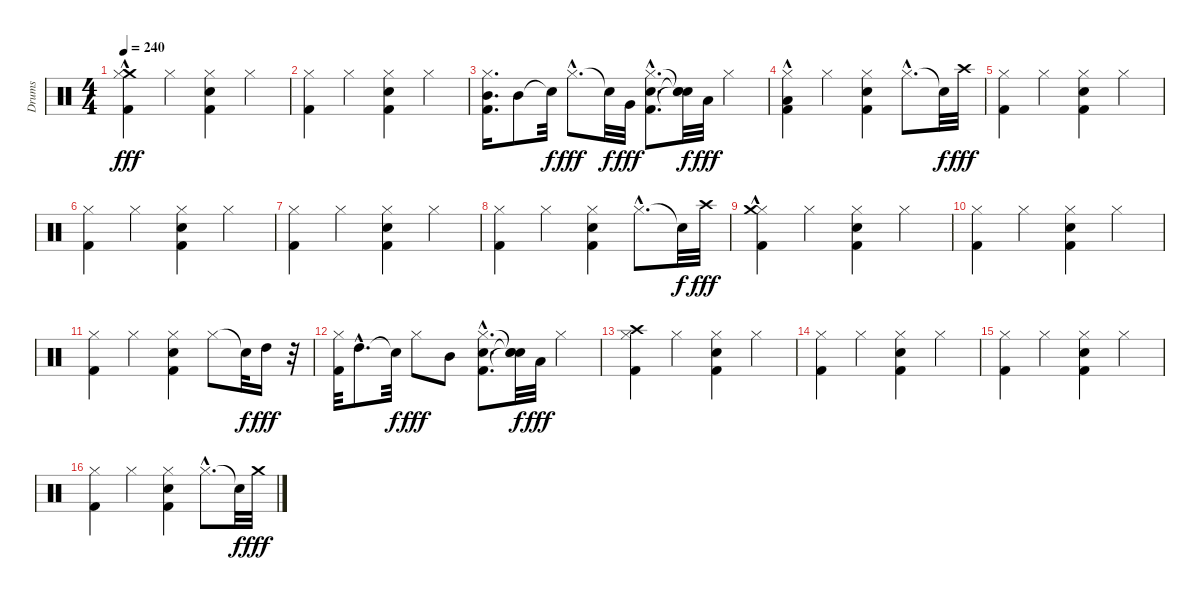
\track ("Drums" "Drums") {instrument percussion}
\staff {score}
\articulation defaults
\ts (4 4)
\tempo 240
\clef neutral
\ks c
("Crash medium (hit)"{hac} "Hi-Hat (closed)" "Kick (hit) 2").4{dy fff} "Hi-Hat (closed)".4 ("Kick (hit) 2" "Snare (hit) 2" "Hi-Hat (closed)").4 "Hi-Hat (closed)".4 |
("Hi-Hat (closed)" "Kick (hit) 2").4 "Hi-Hat (closed)".4 ("Snare (hit) 2" "Kick (hit) 2" "Hi-Hat (closed)").4 "Hi-Hat (closed)".4 |
("Mid Tom (hit)" "Hi-Hat (closed)" "Kick (hit) 2").16{d} "Mid Tom (hit)".8 "Snare (hit)"{t}.32{dy f} "Hi-Hat (closed)"{hac}.8{d dy fff} "Snare (hit)"{t}.32{dy f} "Very Low Tom (hit)".32{dy fff} ("Snare (hit) 2"{hac} "Hi-Hat (closed)"{hac} "Kick (hit) 2"{hac}).8{d} ("Snare (hit)"{t} "Snare (hit)"{t} "Snare (hit)"{t}).32{dy f} "Low Tom (hit)".32{dy fff} "Hi-Hat (closed)".4 |
("Low Floor Tom (hit)"{hac} "Hi-Hat (closed)" "Kick (hit) 2").4 "Hi-Hat (closed)".4 ("Snare (hit) 2" "Kick (hit) 2" "Hi-Hat (closed)").4 "Hi-Hat (closed)"{hac}.8{d} "Snare (hit)"{t}.32{dy f} "Crash high (hit)".32{dy fff} |
("Hi-Hat (closed)" "Kick (hit) 2").4 "Hi-Hat (closed)".4 ("Kick (hit) 2" "Snare (hit) 2" "Hi-Hat (closed)").4 "Hi-Hat (closed)".4 |
("Hi-Hat (closed)" "Kick (hit) 2").4 "Hi-Hat (closed)".4 ("Hi-Hat (closed)" "Snare (hit) 2" "Kick (hit) 2").4 "Hi-Hat (closed)".4 |
("Hi-Hat (closed)" "Kick (hit) 2").4 "Hi-Hat (closed)".4 ("Kick (hit) 2" "Hi-Hat (closed)" "Snare (hit) 2").4 "Hi-Hat (closed)".4 |
("Hi-Hat (closed)" "Kick (hit) 2").4 "Hi-Hat (closed)".4 ("Snare (hit) 2" "Kick (hit) 2" "Hi-Hat (closed)").4 "Hi-Hat (closed)"{hac}.8{d} "Snare (hit)"{t}.32{dy f} "Crash high (hit)".32{dy fff} |
("Kick (hit) 2" "Hi-Hat (closed)" "Crash medium (hit)"{hac}).4 "Hi-Hat (closed)".4 ("Kick (hit) 2" "Snare (hit) 2" "Hi-Hat (closed)").4 "Hi-Hat (closed)".4 |
("Kick (hit) 2" "Hi-Hat (closed)").4 "Hi-Hat (closed)".4 ("Snare (hit) 2" "Kick (hit) 2" "Hi-Hat (closed)").4 "Hi-Hat (closed)".4 |
("Kick (hit) 2" "Hi-Hat (closed)").4 "Hi-Hat (closed)".4 ("Snare (hit) 2" "Hi-Hat (closed)" "Kick (hit) 2").4 "Hi-Hat (closed)".8 "Snare (hit)"{t}.32{dy f} "High Tom (hit)".16{dy fff} r.32 |
("Kick (hit) 2" "Hi-Hat (closed)").32 "High Tom (hit)"{hac}.8{d} "Snare (hit)"{t}.32{dy f} "Hi-Hat (closed)".8{dy fff} "Mid Tom (hit)".8 ("Snare (hit) 2"{hac} "Kick (hit) 2"{hac} "Hi-Hat (closed)"{hac}).8{d} ("Snare (hit)"{t} "Snare (hit)"{t} "Snare (hit)"{t}).32{dy f} "Low Tom (hit)".32{dy fff} "Hi-Hat (closed)".4 |
("Kick (hit) 2" "Hi-Hat (closed)" "Crash high (hit)").4 "Hi-Hat (closed)".4 ("Kick (hit) 2" "Snare (hit) 2" "Hi-Hat (closed)").4 "Hi-Hat (closed)".4 |
("Kick (hit) 2" "Hi-Hat (closed)").4 "Hi-Hat (closed)".4 ("Hi-Hat (closed)" "Snare (hit) 2" "Kick (hit) 2").4 "Hi-Hat (closed)".4 |
("Kick (hit) 2" "Hi-Hat (closed)").4 "Hi-Hat (closed)".4 ("Kick (hit) 2" "Hi-Hat (closed)" "Snare (hit) 2").4 "Hi-Hat (closed)".4 |
("Kick (hit) 2" "Hi-Hat (closed)").4 "Hi-Hat (closed)".4 ("Snare (hit) 2" "Kick (hit) 2" "Hi-Hat (closed)").4 "Hi-Hat (closed)"{hac}.8{d} "Snare (hit)"{t}.32{dy f} "Crash medium (hit)".32{dy fff}
